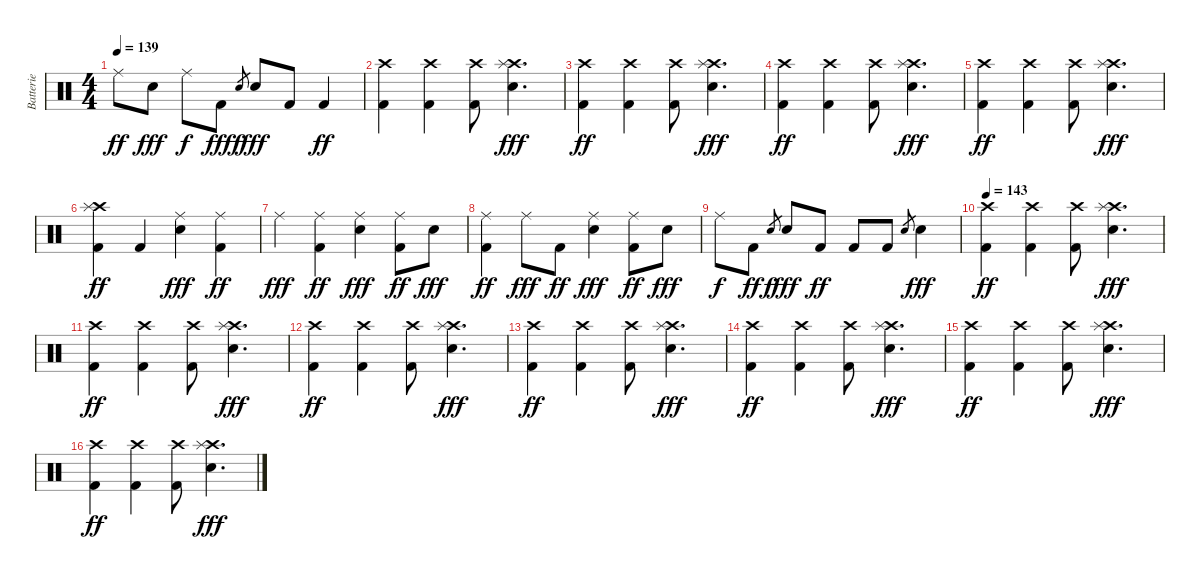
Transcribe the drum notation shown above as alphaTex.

\track ("Batterie" "Batterie") {instrument percussion}
\staff {score}
\articulation defaults
\ts (4 4)
\tempo 139
\clef neutral
\ks c "Ride (middle)".8{dy ff} "Electric Snare (hit)".8{dy fff} "Ride (middle)".8{dy f} "Kick (hit) 2".8{dy fff} "Electric Snare (hit)".8{gr dy f} "Electric Snare (hit)".8{dy fff} "Kick (hit) 2".8 "Kick (hit) 2".4{dy ff}
|
("Crash high (hit)" "Kick (hit) 2").4 ("Crash high (hit)" "Kick (hit) 2").4 ("Crash high (hit)" "Kick (hit) 2").8 ("Crash high (hit)" "Splash (hit)" "Electric Snare (hit)").4{d dy fff} |
("Crash high (hit)" "Kick (hit) 2").4{dy ff} ("Crash high (hit)" "Kick (hit) 2").4 ("Crash high (hit)" "Kick (hit) 2").8 ("Crash high (hit)" "Splash (hit)" "Electric Snare (hit)").4{d dy fff} |
("Crash high (hit)" "Kick (hit) 2").4{dy ff} ("Crash high (hit)" "Kick (hit) 2").4 ("Crash high (hit)" "Kick (hit) 2").8 ("Crash high (hit)" "Splash (hit)" "Electric Snare (hit)").4{d dy fff} |
("Crash high (hit)" "Kick (hit) 2").4{dy ff} ("Crash high (hit)" "Kick (hit) 2").4 ("Crash high (hit)" "Kick (hit) 2").8 ("Crash high (hit)" "Splash (hit)" "Electric Snare (hit)").4{d dy fff} |
("Crash high (hit)" "Splash (hit)" "Kick (hit) 2").4{dy ff} "Kick (hit) 2".4 ("Ride (middle)" "Electric Snare (hit)").4{dy fff} ("Ride (middle)" "Kick (hit) 2").4{dy ff} |
"Ride (middle)".4{dy fff} ("Ride (middle)" "Kick (hit) 2").4{dy ff} ("Ride (middle)" "Electric Snare (hit)").4{dy fff} ("Ride (middle)" "Kick (hit) 2").8{dy ff} "Electric Snare (hit)".8{dy fff} |
("Ride (middle)" "Kick (hit) 2").4{dy ff} "Ride (middle)".8{dy fff} "Kick (hit) 2".8{dy ff} ("Ride (middle)" "Electric Snare (hit)").4{dy fff} ("Ride (middle)" "Kick (hit) 2").8{dy ff} "Electric Snare (hit)".8{dy fff} |
"Ride (middle)".8{dy f} "Kick (hit) 2".8{dy ff} "Electric Snare (hit)".8{gr dy f} "Electric Snare (hit)".8{dy fff} "Kick (hit) 2".8{dy ff} "Kick (hit) 2".8 "Kick (hit) 2".8 "Electric Snare (hit)".8{gr} "Electric Snare (hit)".4{dy fff} |
\tempo 143
("Crash high (hit)" "Kick (hit) 2").4{dy ff} ("Crash high (hit)" "Kick (hit) 2").4 ("Crash high (hit)" "Kick (hit) 2").8 ("Crash high (hit)" "Splash (hit)" "Electric Snare (hit)").4{d dy fff} |
("Crash high (hit)" "Kick (hit) 2").4{dy ff} ("Crash high (hit)" "Kick (hit) 2").4 ("Crash high (hit)" "Kick (hit) 2").8 ("Crash high (hit)" "Splash (hit)" "Electric Snare (hit)").4{d dy fff} |
("Crash high (hit)" "Kick (hit) 2").4{dy ff} ("Crash high (hit)" "Kick (hit) 2").4 ("Crash high (hit)" "Kick (hit) 2").8 ("Crash high (hit)" "Splash (hit)" "Electric Snare (hit)").4{d dy fff} |
("Crash high (hit)" "Kick (hit) 2").4{dy ff} ("Crash high (hit)" "Kick (hit) 2").4 ("Crash high (hit)" "Kick (hit) 2").8 ("Crash high (hit)" "Splash (hit)" "Electric Snare (hit)").4{d dy fff} |
("Crash high (hit)" "Kick (hit) 2").4{dy ff} ("Crash high (hit)" "Kick (hit) 2").4 ("Crash high (hit)" "Kick (hit) 2").8 ("Crash high (hit)" "Splash (hit)" "Electric Snare (hit)").4{d dy fff} |
("Crash high (hit)" "Kick (hit) 2").4{dy ff} ("Crash high (hit)" "Kick (hit) 2").4 ("Crash high (hit)" "Kick (hit) 2").8 ("Crash high (hit)" "Splash (hit)" "Electric Snare (hit)").4{d dy fff} |
("Crash high (hit)" "Kick (hit) 2").4{dy ff} ("Crash high (hit)" "Kick (hit) 2").4 ("Crash high (hit)" "Kick (hit) 2").8 ("Crash high (hit)" "Splash (hit)" "Electric Snare (hit)").4{d dy fff}
